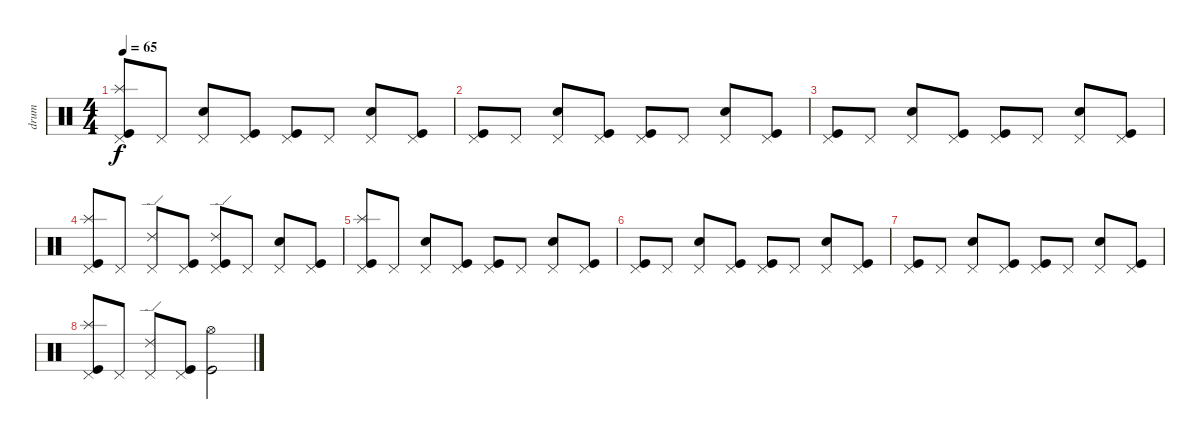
\track ("drum" "drum") {instrument percussion}
\staff {score}
\articulation defaults
\ts (4 4)
\tempo 65
\clef neutral
\ks c
("Pedal Hi-Hat (hit)" "Splash (hit)" "Kick (hit)").8{dy f} "Pedal Hi-Hat (hit)".8 ("Pedal Hi-Hat (hit)" "Electric Snare (hit)").8 ("Pedal Hi-Hat (hit)" "Kick (hit)").8 ("Pedal Hi-Hat (hit)" "Kick (hit)").8 "Pedal Hi-Hat (hit)".8 ("Pedal Hi-Hat (hit)" "Electric Snare (hit)").8 ("Pedal Hi-Hat (hit)" "Kick (hit)").8 |
("Pedal Hi-Hat (hit)" "Kick (hit)").8 "Pedal Hi-Hat (hit)".8 ("Pedal Hi-Hat (hit)" "Electric Snare (hit)").8 ("Pedal Hi-Hat (hit)" "Kick (hit)").8 ("Pedal Hi-Hat (hit)" "Kick (hit)").8 "Pedal Hi-Hat (hit)".8 ("Pedal Hi-Hat (hit)" "Electric Snare (hit)").8 ("Pedal Hi-Hat (hit)" "Kick (hit)").8 |
("Pedal Hi-Hat (hit)" "Kick (hit)").8 "Pedal Hi-Hat (hit)".8 ("Pedal Hi-Hat (hit)" "Electric Snare (hit)").8 ("Pedal Hi-Hat (hit)" "Kick (hit)").8 ("Pedal Hi-Hat (hit)" "Kick (hit)").8 "Pedal Hi-Hat (hit)".8 ("Pedal Hi-Hat (hit)" "Electric Snare (hit)").8 ("Pedal Hi-Hat (hit)" "Kick (hit)").8 |
("Pedal Hi-Hat (hit)" "Splash (hit)" "Kick (hit)").8 "Pedal Hi-Hat (hit)".8 ("Pedal Hi-Hat (hit)" "Ride (edge) 2").8 ("Pedal Hi-Hat (hit)" "Kick (hit)").8 ("Pedal Hi-Hat (hit)" "Ride (edge) 2" "Kick (hit)").8 "Pedal Hi-Hat (hit)".8 ("Pedal Hi-Hat (hit)" "Electric Snare (hit)").8 ("Pedal Hi-Hat (hit)" "Kick (hit)").8 |
("Pedal Hi-Hat (hit)" "Splash (hit)" "Kick (hit)").8 "Pedal Hi-Hat (hit)".8 ("Pedal Hi-Hat (hit)" "Electric Snare (hit)").8 ("Pedal Hi-Hat (hit)" "Kick (hit)").8 ("Pedal Hi-Hat (hit)" "Kick (hit)").8 "Pedal Hi-Hat (hit)".8 ("Pedal Hi-Hat (hit)" "Electric Snare (hit)").8 ("Pedal Hi-Hat (hit)" "Kick (hit)").8 |
("Pedal Hi-Hat (hit)" "Kick (hit)").8 "Pedal Hi-Hat (hit)".8 ("Pedal Hi-Hat (hit)" "Electric Snare (hit)").8 ("Pedal Hi-Hat (hit)" "Kick (hit)").8 ("Pedal Hi-Hat (hit)" "Kick (hit)").8 "Pedal Hi-Hat (hit)".8 ("Pedal Hi-Hat (hit)" "Electric Snare (hit)").8 ("Pedal Hi-Hat (hit)" "Kick (hit)").8 |
("Pedal Hi-Hat (hit)" "Kick (hit)").8 "Pedal Hi-Hat (hit)".8 ("Pedal Hi-Hat (hit)" "Electric Snare (hit)").8 ("Pedal Hi-Hat (hit)" "Kick (hit)").8 ("Pedal Hi-Hat (hit)" "Kick (hit)").8 "Pedal Hi-Hat (hit)".8 ("Pedal Hi-Hat (hit)" "Electric Snare (hit)").8 ("Pedal Hi-Hat (hit)" "Kick (hit)").8 |
("Pedal Hi-Hat (hit)" "Splash (hit)" "Kick (hit)").8 "Pedal Hi-Hat (hit)".8 ("Pedal Hi-Hat (hit)" "Ride (edge) 2").8 ("Pedal Hi-Hat (hit)" "Kick (hit)").8 ("Hi-Hat (open)" "Kick (hit)").2
